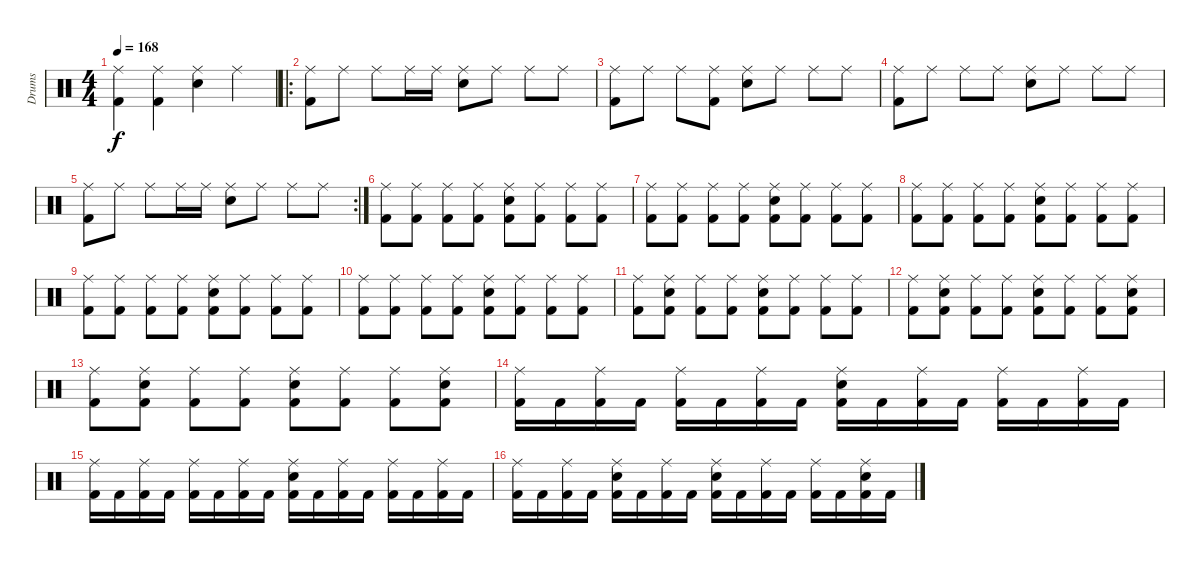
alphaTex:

\track ("Drums" "Drums") {instrument percussion}
\staff {score}
\articulation defaults
\ts (4 4)
\tempo 168
\clef neutral
\ks c
("Kick (hit) 2" "Ride (middle)").4{dy f} ("Kick (hit) 2" "Ride (middle)").4 ("Snare (hit) 2" "Ride (middle)").4 "Ride (middle)".4 |
\ro
("Kick (hit) 2" "Ride (middle)").8 "Ride (middle)".8 "Ride (middle)".8 "Ride (middle)".16 "Ride (middle)".16 ("Snare (hit) 2" "Ride (middle)").8 "Ride (middle)".8 "Ride (middle)".8 "Ride (middle)".8 |
("Kick (hit) 2" "Ride (middle)").8 "Ride (middle)".8 "Ride (middle)".8 ("Kick (hit) 2" "Ride (middle)").8 ("Snare (hit) 2" "Ride (middle)").8 "Ride (middle)".8 "Ride (middle)".8 "Ride (middle)".8 |
("Kick (hit) 2" "Ride (middle)").8 "Ride (middle)".8 "Ride (middle)".8 "Ride (middle)".8 ("Snare (hit) 2" "Ride (middle)").8 "Ride (middle)".8 "Ride (middle)".8 "Ride (middle)".8 |
\rc 2
("Kick (hit) 2" "Ride (middle)").8 "Ride (middle)".8 "Ride (middle)".8 "Ride (middle)".16 "Ride (middle)".16 ("Snare (hit) 2" "Ride (middle)").8 "Ride (middle)".8 "Ride (middle)".8 "Ride (middle)".8 |
("Kick (hit) 2" "Ride (middle)").8 ("Kick (hit) 2" "Ride (middle)").8 ("Kick (hit) 2" "Ride (middle)").8 ("Kick (hit) 2" "Ride (middle)").8 ("Kick (hit) 2" "Snare (hit) 2" "Ride (middle)").8 ("Kick (hit) 2" "Ride (middle)").8 ("Kick (hit) 2" "Ride (middle)").8 ("Kick (hit) 2" "Ride (middle)").8 |
("Kick (hit) 2" "Ride (middle)").8 ("Kick (hit) 2" "Ride (middle)").8 ("Kick (hit) 2" "Ride (middle)").8 ("Kick (hit) 2" "Ride (middle)").8 ("Kick (hit) 2" "Snare (hit) 2" "Ride (middle)").8 ("Kick (hit) 2" "Ride (middle)").8 ("Kick (hit) 2" "Ride (middle)").8 ("Kick (hit) 2" "Ride (middle)").8 |
("Kick (hit) 2" "Ride (middle)").8 ("Kick (hit) 2" "Ride (middle)").8 ("Kick (hit) 2" "Ride (middle)").8 ("Kick (hit) 2" "Ride (middle)").8 ("Kick (hit) 2" "Snare (hit) 2" "Ride (middle)").8 ("Kick (hit) 2" "Ride (middle)").8 ("Kick (hit) 2" "Ride (middle)").8 ("Kick (hit) 2" "Ride (middle)").8 |
("Kick (hit) 2" "Ride (middle)").8 ("Kick (hit) 2" "Ride (middle)").8 ("Kick (hit) 2" "Ride (middle)").8 ("Kick (hit) 2" "Ride (middle)").8 ("Kick (hit) 2" "Snare (hit) 2" "Ride (middle)").8 ("Kick (hit) 2" "Ride (middle)").8 ("Kick (hit) 2" "Ride (middle)").8 ("Kick (hit) 2" "Ride (middle)").8 |
("Kick (hit) 2" "Ride (middle)").8 ("Kick (hit) 2" "Ride (middle)").8 ("Kick (hit) 2" "Ride (middle)").8 ("Kick (hit) 2" "Ride (middle)").8 ("Kick (hit) 2" "Snare (hit) 2" "Ride (middle)").8 ("Kick (hit) 2" "Ride (middle)").8 ("Kick (hit) 2" "Ride (middle)").8 ("Kick (hit) 2" "Ride (middle)").8 |
("Kick (hit) 2" "Ride (middle)").8 ("Kick (hit) 2" "Snare (hit) 2" "Ride (middle)").8 ("Kick (hit) 2" "Ride (middle)").8 ("Kick (hit) 2" "Ride (middle)").8 ("Kick (hit) 2" "Snare (hit) 2" "Ride (middle)").8 ("Kick (hit) 2" "Ride (middle)").8 ("Kick (hit) 2" "Ride (middle)").8 ("Kick (hit) 2" "Ride (middle)").8 |
("Kick (hit) 2" "Ride (middle)").8 ("Kick (hit) 2" "Snare (hit) 2" "Ride (middle)").8 ("Kick (hit) 2" "Ride (middle)").8 ("Kick (hit) 2" "Ride (middle)").8 ("Kick (hit) 2" "Snare (hit) 2" "Ride (middle)").8 ("Kick (hit) 2" "Ride (middle)").8 ("Kick (hit) 2" "Ride (middle)").8 ("Kick (hit) 2" "Snare (hit) 2" "Ride (middle)").8 |
("Kick (hit) 2" "Ride (middle)").8 ("Kick (hit) 2" "Snare (hit) 2" "Ride (middle)").8 ("Kick (hit) 2" "Ride (middle)").8 ("Kick (hit) 2" "Ride (middle)").8 ("Kick (hit) 2" "Snare (hit) 2" "Ride (middle)").8 ("Kick (hit) 2" "Ride (middle)").8 ("Kick (hit) 2" "Ride (middle)").8 ("Kick (hit) 2" "Snare (hit) 2" "Ride (middle)").8 |
("Kick (hit) 2" "Ride (middle)").16 "Kick (hit) 2".16 ("Kick (hit) 2" "Ride (middle)").16 "Kick (hit) 2".16 ("Kick (hit) 2" "Ride (middle)").16 "Kick (hit) 2".16 ("Kick (hit) 2" "Ride (middle)").16 "Kick (hit) 2".16 ("Kick (hit) 2" "Snare (hit) 2" "Ride (middle)").16 "Kick (hit) 2".16 ("Kick (hit) 2" "Ride (middle)").16 "Kick (hit) 2".16 ("Kick (hit) 2" "Ride (middle)").16 "Kick (hit) 2".16 ("Kick (hit) 2" "Ride (middle)").16 "Kick (hit) 2".16 |
("Kick (hit) 2" "Ride (middle)").16 "Kick (hit) 2".16 ("Kick (hit) 2" "Ride (middle)").16 "Kick (hit) 2".16 ("Kick (hit) 2" "Ride (middle)").16 "Kick (hit) 2".16 ("Kick (hit) 2" "Ride (middle)").16 "Kick (hit) 2".16 ("Kick (hit) 2" "Snare (hit) 2" "Ride (middle)").16 "Kick (hit) 2".16 ("Kick (hit) 2" "Ride (middle)").16 "Kick (hit) 2".16 ("Kick (hit) 2" "Ride (middle)").16 "Kick (hit) 2".16 ("Kick (hit) 2" "Ride (middle)").16 "Kick (hit) 2".16 |
("Kick (hit) 2" "Ride (middle)").16 "Kick (hit) 2".16 ("Kick (hit) 2" "Ride (middle)").16 "Kick (hit) 2".16 ("Kick (hit) 2" "Snare (hit) 2" "Ride (middle)").16 "Kick (hit) 2".16 ("Kick (hit) 2" "Ride (middle)").16 "Kick (hit) 2".16 ("Kick (hit) 2" "Snare (hit) 2" "Ride (middle)").16 "Kick (hit) 2".16 ("Kick (hit) 2" "Ride (middle)").16 "Kick (hit) 2".16 ("Kick (hit) 2" "Ride (middle)").16 "Kick (hit) 2".16 ("Kick (hit) 2" "Snare (hit) 2" "Ride (middle)").16 "Kick (hit) 2".16
